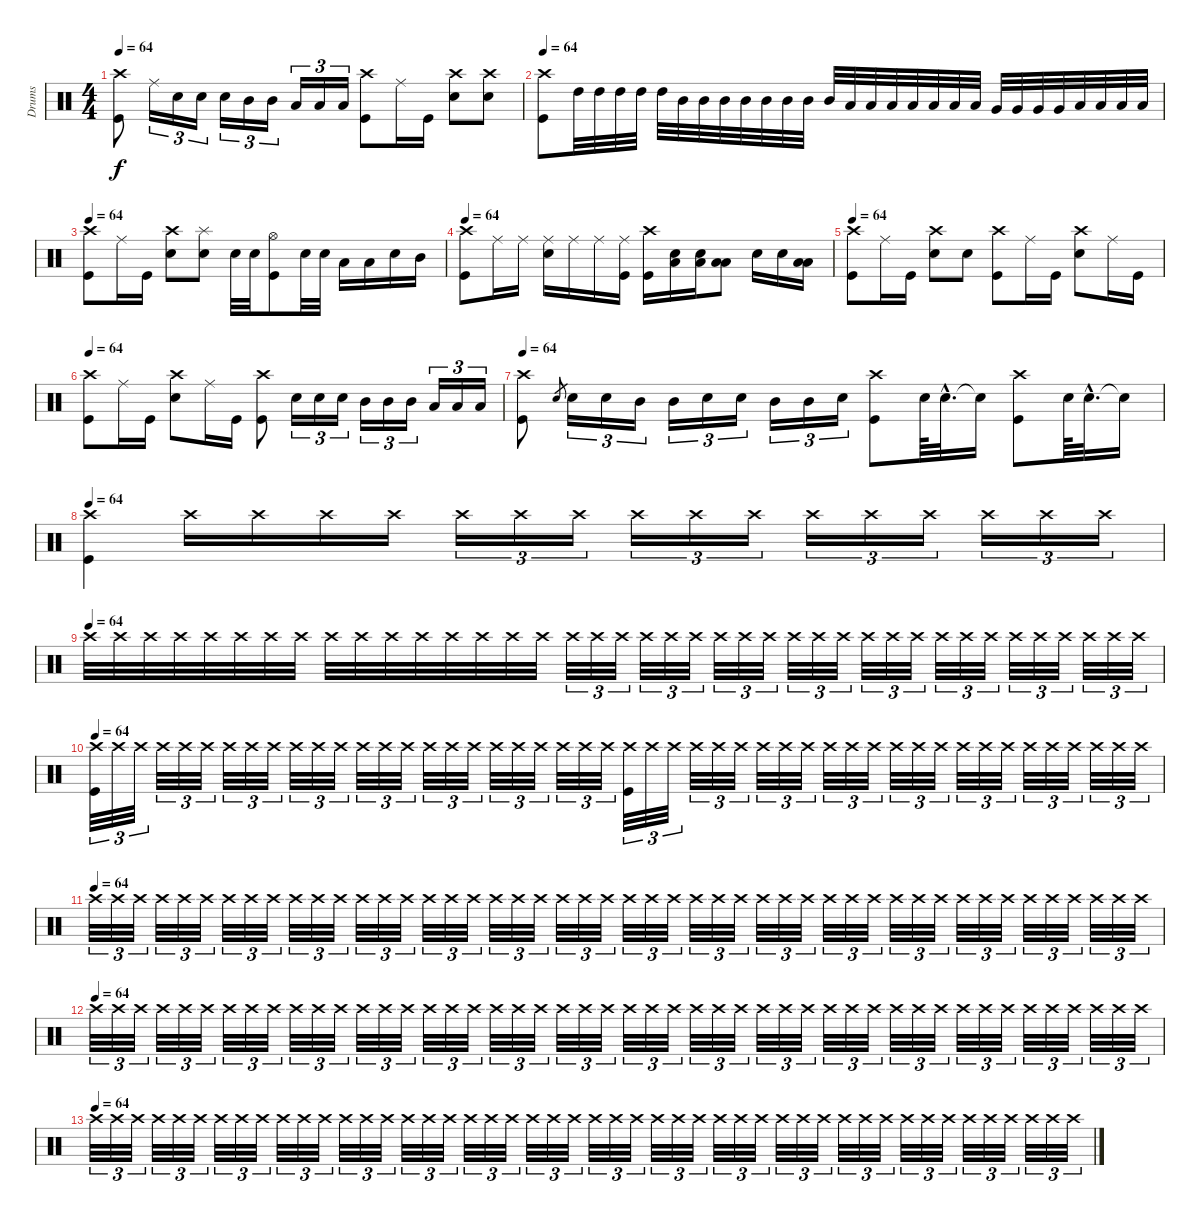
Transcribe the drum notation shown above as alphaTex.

\track ("Drums" "Drums") {instrument percussion}
\staff {score}
\articulation defaults
\ts (4 4)
\tempo 64
\clef neutral
\ks c
("Crash high (hit)" "Kick (hit)").8{dy f} "Ride (middle)".16{tu (3 2)} "Snare (hit) 2".16{tu (3 2)} "Snare (hit) 2".16{tu (3 2)} "Snare (hit) 2".16{tu (3 2)} "Mid Tom (hit)".16{tu (3 2)} "Mid Tom (hit)".16{tu (3 2)} "Low Tom (hit)".16{tu (3 2)} "Low Tom (hit)".16{tu (3 2)} "Low Tom (hit)".16{tu (3 2)} ("Crash high (hit)" "Kick (hit)").8 "Ride (middle)".16 "Kick (hit)".16 ("Crash high (hit)" "Snare (hit) 2").8 ("Crash high (hit)" "Snare (hit) 2").8 |
\tempo 64
("Crash high (hit)" "Kick (hit)").8 "High Tom (hit)".32 "High Tom (hit)".32 "High Tom (hit)".32 "High Tom (hit)".32 "High Tom (hit)".32 "Mid Tom (hit)".32 "Mid Tom (hit)".32 "Mid Tom (hit)".32 "Mid Tom (hit)".32 "Mid Tom (hit)".32 "Mid Tom (hit)".32 "Mid Tom (hit)".32 "Mid Tom (hit)".32 "Low Tom (hit)".32 "Low Tom (hit)".32 "Low Tom (hit)".32 "Low Tom (hit)".32 "Low Tom (hit)".32 "Low Tom (hit)".32 "Low Tom (hit)".32 "Very Low Tom (hit)".32 "Very Low Tom (hit)".32 "Very Low Tom (hit)".32 "Very Low Tom (hit)".32 "Low Floor Tom (hit)".32 "Low Floor Tom (hit)".32 "Low Floor Tom (hit)".32 "Low Floor Tom (hit)".32 |
\tempo 64
("Crash high (hit)" "Kick (hit)").8 "Ride (middle)".16 "Kick (hit)".16 ("Crash high (hit)" "Snare (hit) 2").8 ("Splash (hit)" "Snare (hit) 2").8 "Snare (hit) 2".32 "Snare (hit) 2".32 ("Hi-Hat (open)" "Kick (hit)").8 "Snare (hit) 2".32 "Snare (hit) 2".32 "Low Tom (hit)".16 "Low Tom (hit)".16 "Snare (hit) 2".16 "Mid Tom (hit)".16 |
\tempo 64
("Crash high (hit)" "Kick (hit)").8 "Ride (middle)".16 "Ride (middle)".16 ("Ride (middle)" "Snare (hit) 2").16 "Ride (middle)".16 "Ride (middle)".16 ("Ride (middle)" "Kick (hit)").16 ("Crash high (hit)" "Kick (hit)").16 ("Snare (hit) 2" "Low Floor Tom (hit)").16 ("Snare (hit) 2" "Low Floor Tom (hit)").16 ("Low Tom (hit)" "Low Floor Tom (hit)").8 "Snare (hit) 2".16 "Snare (hit) 2".16 ("Low Tom (hit)" "Low Floor Tom (hit)").16 |
\tempo 64
("Crash high (hit)" "Kick (hit)").8 "Ride (middle)".16 "Kick (hit)".16 ("Crash high (hit)" "Snare (hit) 2").8 "Snare (hit) 2".8 ("Crash high (hit)" "Kick (hit)").8 "Ride (middle)".16 "Kick (hit)".16 ("Crash high (hit)" "Snare (hit) 2").8 "Ride (middle)".16 "Kick (hit)".16 |
\tempo 64
("Crash high (hit)" "Kick (hit)").8 "Ride (middle)".16 "Kick (hit)".16 ("Crash high (hit)" "Snare (hit) 2").8 "Ride (middle)".16 "Kick (hit)".16 ("Crash high (hit)" "Kick (hit)").8 "Snare (hit) 2".16{tu (3 2)} "Snare (hit) 2".16{tu (3 2)} "Snare (hit) 2".16{tu (3 2)} "Mid Tom (hit)".16{tu (3 2)} "Mid Tom (hit)".16{tu (3 2)} "Mid Tom (hit)".16{tu (3 2)} "Low Tom (hit)".16{tu (3 2)} "Low Tom (hit)".16{tu (3 2)} "Low Tom (hit)".16{tu (3 2)} |
\tempo 64
("Crash high (hit)" "Kick (hit)").8 "Snare (hit) 2".8{gr} "Snare (hit) 2".16{tu (3 2)} "Snare (hit) 2".16{tu (3 2)} "Mid Tom (hit)".16{tu (3 2)} "Mid Tom (hit)".16{tu (3 2)} "Snare (hit) 2".16{tu (3 2)} "Snare (hit) 2".16{tu (3 2)} "Mid Tom (hit)".16{tu (3 2)} "Mid Tom (hit)".16{tu (3 2)} "Snare (hit) 2".16{tu (3 2)} ("Crash high (hit)" "Kick (hit)").8 "Snare (hit) 2".64 "Snare (hit) 2"{hac}.32{d} "Snare (hit)"{t}.16 ("Crash high (hit)" "Kick (hit)").8 "Snare (hit) 2".64 "Snare (hit) 2"{hac}.32{d} "Snare (hit)"{t}.16 |
\tempo 64
("Crash high (hit)" "Kick (hit)").4 "Crash high (hit)".16 "Crash high (hit)".16 "Crash high (hit)".16 "Crash high (hit)".16 "Crash high (hit)".16{tu (3 2)} "Crash high (hit)".16{tu (3 2)} "Crash high (hit)".16{tu (3 2)} "Crash high (hit)".16{tu (3 2)} "Crash high (hit)".16{tu (3 2)} "Crash high (hit)".16{tu (3 2)} "Crash high (hit)".16{tu (3 2)} "Crash high (hit)".16{tu (3 2)} "Crash high (hit)".16{tu (3 2)} "Crash high (hit)".16{tu (3 2)} "Crash high (hit)".16{tu (3 2)} "Crash high (hit)".16{tu (3 2)} |
\tempo (64)
"Crash high (hit)".32 "Crash high (hit)".32 "Crash high (hit)".32 "Crash high (hit)".32 "Crash high (hit)".32 "Crash high (hit)".32 "Crash high (hit)".32 "Crash high (hit)".32 "Crash high (hit)".32 "Crash high (hit)".32 "Crash high (hit)".32 "Crash high (hit)".32 "Crash high (hit)".32 "Crash high (hit)".32 "Crash high (hit)".32 "Crash high (hit)".32 "Crash high (hit)".32{tu (3 2)} "Crash high (hit)".32{tu (3 2)} "Crash high (hit)".32{tu (3 2)} "Crash high (hit)".32{tu (3 2)} "Crash high (hit)".32{tu (3 2)} "Crash high (hit)".32{tu (3 2)} "Crash high (hit)".32{tu (3 2)} "Crash high (hit)".32{tu (3 2)} "Crash high (hit)".32{tu (3 2)} "Crash high (hit)".32{tu (3 2)} "Crash high (hit)".32{tu (3 2)} "Crash high (hit)".32{tu (3 2)} "Crash high (hit)".32{tu (3 2)} "Crash high (hit)".32{tu (3 2)} "Crash high (hit)".32{tu (3 2)} "Crash high (hit)".32{tu (3 2)} "Crash high (hit)".32{tu (3 2)} "Crash high (hit)".32{tu (3 2)} "Crash high (hit)".32{tu (3 2)} "Crash high (hit)".32{tu (3 2)} "Crash high (hit)".32{tu (3 2)} "Crash high (hit)".32{tu (3 2)} "Crash high (hit)".32{tu (3 2)} "Crash high (hit)".32{tu (3 2)} |
\tempo 64
("Crash high (hit)" "Kick (hit)").32{tu (3 2) volume 7} "Crash high (hit)".32{tu (3 2)} "Crash high (hit)".32{tu (3 2)} "Crash high (hit)".32{tu (3 2)} "Crash high (hit)".32{tu (3 2)} "Crash high (hit)".32{tu (3 2)} "Crash high (hit)".32{tu (3 2)} "Crash high (hit)".32{tu (3 2)} "Crash high (hit)".32{tu (3 2)} "Crash high (hit)".32{tu (3 2)} "Crash high (hit)".32{tu (3 2)} "Crash high (hit)".32{tu (3 2)} "Crash high (hit)".32{tu (3 2)} "Crash high (hit)".32{tu (3 2)} "Crash high (hit)".32{tu (3 2)} "Crash high (hit)".32{tu (3 2)} "Crash high (hit)".32{tu (3 2)} "Crash high (hit)".32{tu (3 2)} "Crash high (hit)".32{tu (3 2)} "Crash high (hit)".32{tu (3 2)} "Crash high (hit)".32{tu (3 2)} "Crash high (hit)".32{tu (3 2)} "Crash high (hit)".32{tu (3 2)} "Crash high (hit)".32{tu (3 2)} ("Crash high (hit)" "Kick (hit)").32{tu (3 2)} "Crash high (hit)".32{tu (3 2)} "Crash high (hit)".32{tu (3 2)} "Crash high (hit)".32{tu (3 2)} "Crash high (hit)".32{tu (3 2)} "Crash high (hit)".32{tu (3 2)} "Crash high (hit)".32{tu (3 2)} "Crash high (hit)".32{tu (3 2)} "Crash high (hit)".32{tu (3 2)} "Crash high (hit)".32{tu (3 2)} "Crash high (hit)".32{tu (3 2)} "Crash high (hit)".32{tu (3 2)} "Crash high (hit)".32{tu (3 2)} "Crash high (hit)".32{tu (3 2)} "Crash high (hit)".32{tu (3 2)} "Crash high (hit)".32{tu (3 2)} "Crash high (hit)".32{tu (3 2)} "Crash high (hit)".32{tu (3 2)} "Crash high (hit)".32{tu (3 2)} "Crash high (hit)".32{tu (3 2)} "Crash high (hit)".32{tu (3 2)} "Crash high (hit)".32{tu (3 2)} "Crash high (hit)".32{tu (3 2)} "Crash high (hit)".32{tu (3 2)} |
\tempo (64)
"Crash high (hit)".32{tu (3 2) volume 5} "Crash high (hit)".32{tu (3 2)} "Crash high (hit)".32{tu (3 2)} "Crash high (hit)".32{tu (3 2)} "Crash high (hit)".32{tu (3 2)} "Crash high (hit)".32{tu (3 2)} "Crash high (hit)".32{tu (3 2)} "Crash high (hit)".32{tu (3 2)} "Crash high (hit)".32{tu (3 2)} "Crash high (hit)".32{tu (3 2)} "Crash high (hit)".32{tu (3 2)} "Crash high (hit)".32{tu (3 2)} "Crash high (hit)".32{tu (3 2)} "Crash high (hit)".32{tu (3 2)} "Crash high (hit)".32{tu (3 2)} "Crash high (hit)".32{tu (3 2)} "Crash high (hit)".32{tu (3 2)} "Crash high (hit)".32{tu (3 2)} "Crash high (hit)".32{tu (3 2)} "Crash high (hit)".32{tu (3 2)} "Crash high (hit)".32{tu (3 2)} "Crash high (hit)".32{tu (3 2)} "Crash high (hit)".32{tu (3 2)} "Crash high (hit)".32{tu (3 2)} "Crash high (hit)".32{tu (3 2)} "Crash high (hit)".32{tu (3 2)} "Crash high (hit)".32{tu (3 2)} "Crash high (hit)".32{tu (3 2)} "Crash high (hit)".32{tu (3 2)} "Crash high (hit)".32{tu (3 2)} "Crash high (hit)".32{tu (3 2)} "Crash high (hit)".32{tu (3 2)} "Crash high (hit)".32{tu (3 2)} "Crash high (hit)".32{tu (3 2)} "Crash high (hit)".32{tu (3 2)} "Crash high (hit)".32{tu (3 2)} "Crash high (hit)".32{tu (3 2)} "Crash high (hit)".32{tu (3 2)} "Crash high (hit)".32{tu (3 2)} "Crash high (hit)".32{tu (3 2)} "Crash high (hit)".32{tu (3 2)} "Crash high (hit)".32{tu (3 2)} "Crash high (hit)".32{tu (3 2)} "Crash high (hit)".32{tu (3 2)} "Crash high (hit)".32{tu (3 2)} "Crash high (hit)".32{tu (3 2)} "Crash high (hit)".32{tu (3 2)} "Crash high (hit)".32{tu (3 2)} |
\tempo (64)
"Crash high (hit)".32{tu (3 2) volume 5} "Crash high (hit)".32{tu (3 2)} "Crash high (hit)".32{tu (3 2)} "Crash high (hit)".32{tu (3 2)} "Crash high (hit)".32{tu (3 2)} "Crash high (hit)".32{tu (3 2)} "Crash high (hit)".32{tu (3 2)} "Crash high (hit)".32{tu (3 2)} "Crash high (hit)".32{tu (3 2)} "Crash high (hit)".32{tu (3 2)} "Crash high (hit)".32{tu (3 2)} "Crash high (hit)".32{tu (3 2)} "Crash high (hit)".32{tu (3 2)} "Crash high (hit)".32{tu (3 2)} "Crash high (hit)".32{tu (3 2)} "Crash high (hit)".32{tu (3 2)} "Crash high (hit)".32{tu (3 2)} "Crash high (hit)".32{tu (3 2)} "Crash high (hit)".32{tu (3 2)} "Crash high (hit)".32{tu (3 2)} "Crash high (hit)".32{tu (3 2)} "Crash high (hit)".32{tu (3 2)} "Crash high (hit)".32{tu (3 2)} "Crash high (hit)".32{tu (3 2)} "Crash high (hit)".32{tu (3 2)} "Crash high (hit)".32{tu (3 2)} "Crash high (hit)".32{tu (3 2)} "Crash high (hit)".32{tu (3 2)} "Crash high (hit)".32{tu (3 2)} "Crash high (hit)".32{tu (3 2)} "Crash high (hit)".32{tu (3 2)} "Crash high (hit)".32{tu (3 2)} "Crash high (hit)".32{tu (3 2)} "Crash high (hit)".32{tu (3 2)} "Crash high (hit)".32{tu (3 2)} "Crash high (hit)".32{tu (3 2)} "Crash high (hit)".32{tu (3 2)} "Crash high (hit)".32{tu (3 2)} "Crash high (hit)".32{tu (3 2)} "Crash high (hit)".32{tu (3 2)} "Crash high (hit)".32{tu (3 2)} "Crash high (hit)".32{tu (3 2)} "Crash high (hit)".32{tu (3 2)} "Crash high (hit)".32{tu (3 2)} "Crash high (hit)".32{tu (3 2)} "Crash high (hit)".32{tu (3 2)} "Crash high (hit)".32{tu (3 2)} "Crash high (hit)".32{tu (3 2)} |
\tempo (64)
"Crash high (hit)".32{tu (3 2) volume 5} "Crash high (hit)".32{tu (3 2)} "Crash high (hit)".32{tu (3 2)} "Crash high (hit)".32{tu (3 2)} "Crash high (hit)".32{tu (3 2)} "Crash high (hit)".32{tu (3 2)} "Crash high (hit)".32{tu (3 2)} "Crash high (hit)".32{tu (3 2)} "Crash high (hit)".32{tu (3 2)} "Crash high (hit)".32{tu (3 2)} "Crash high (hit)".32{tu (3 2)} "Crash high (hit)".32{tu (3 2)} "Crash high (hit)".32{tu (3 2)} "Crash high (hit)".32{tu (3 2)} "Crash high (hit)".32{tu (3 2)} "Crash high (hit)".32{tu (3 2)} "Crash high (hit)".32{tu (3 2)} "Crash high (hit)".32{tu (3 2)} "Crash high (hit)".32{tu (3 2)} "Crash high (hit)".32{tu (3 2)} "Crash high (hit)".32{tu (3 2)} "Crash high (hit)".32{tu (3 2)} "Crash high (hit)".32{tu (3 2)} "Crash high (hit)".32{tu (3 2)} "Crash high (hit)".32{tu (3 2)} "Crash high (hit)".32{tu (3 2)} "Crash high (hit)".32{tu (3 2)} "Crash high (hit)".32{tu (3 2)} "Crash high (hit)".32{tu (3 2)} "Crash high (hit)".32{tu (3 2)} "Crash high (hit)".32{tu (3 2)} "Crash high (hit)".32{tu (3 2)} "Crash high (hit)".32{tu (3 2)} "Crash high (hit)".32{tu (3 2)} "Crash high (hit)".32{tu (3 2)} "Crash high (hit)".32{tu (3 2)} "Crash high (hit)".32{tu (3 2)} "Crash high (hit)".32{tu (3 2)} "Crash high (hit)".32{tu (3 2)} "Crash high (hit)".32{tu (3 2)} "Crash high (hit)".32{tu (3 2)} "Crash high (hit)".32{tu (3 2)} "Crash high (hit)".32{tu (3 2)} "Crash high (hit)".32{tu (3 2)} "Crash high (hit)".32{tu (3 2)} "Crash high (hit)".32{tu (3 2)} "Crash high (hit)".32{tu (3 2)} "Crash high (hit)".32{tu (3 2)}
